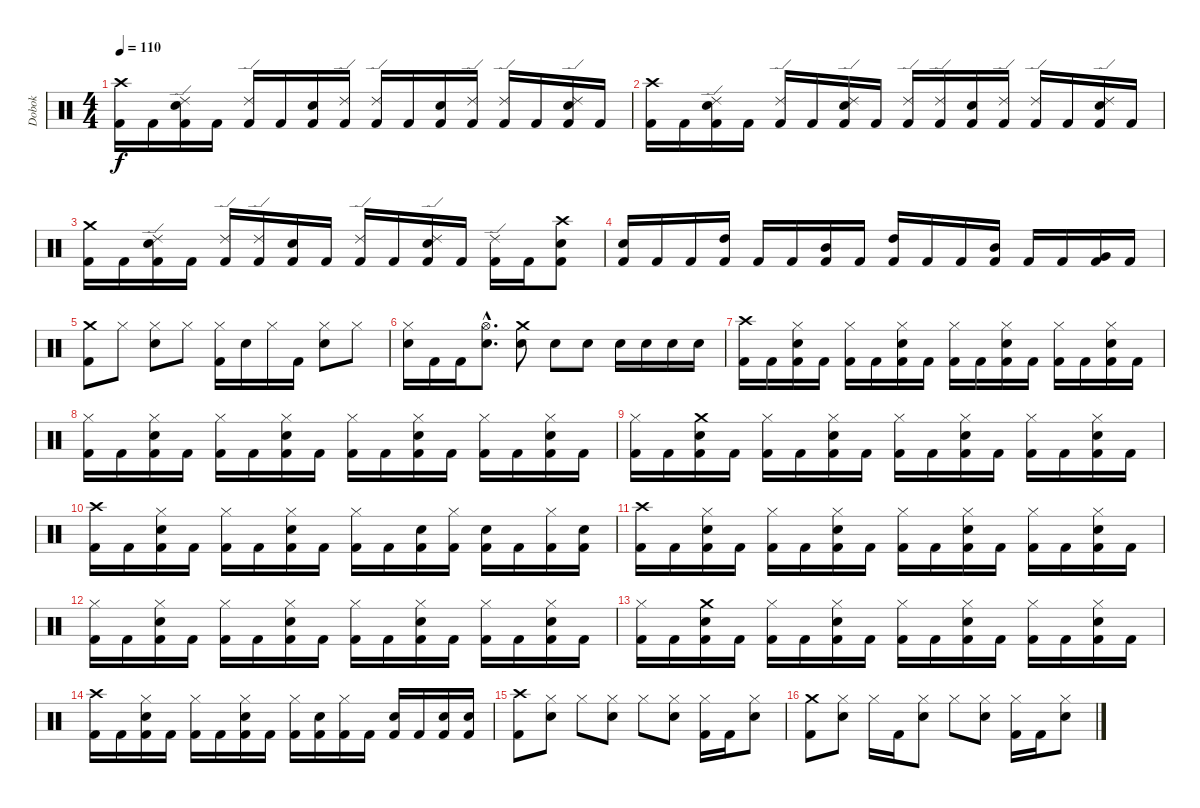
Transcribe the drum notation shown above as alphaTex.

\track ("Dobok" "Dobok") {instrument percussion}
\staff {score}
\articulation defaults
\ts (4 4)
\tempo 110
\clef neutral
\ks c
("Crash high (hit)" "Kick (hit) 2").16{dy f} "Kick (hit) 2".16 ("Ride (edge) 2" "Snare (hit) 2" "Kick (hit) 2").16 "Kick (hit) 2".16 ("Ride (edge) 2" "Kick (hit) 2").16 "Kick (hit) 2".16 ("Snare (hit) 2" "Kick (hit) 2").16 ("Ride (edge) 2" "Kick (hit) 2").16 ("Ride (edge) 2" "Kick (hit) 2").16 "Kick (hit) 2".16 ("Snare (hit) 2" "Kick (hit) 2").16 ("Ride (edge) 2" "Kick (hit) 2").16 ("Ride (edge) 2" "Kick (hit) 2").16 "Kick (hit) 2".16 ("Ride (edge) 2" "Snare (hit) 2" "Kick (hit) 2").16 "Kick (hit) 2".16 |
("Crash high (hit)" "Kick (hit) 2").16 "Kick (hit) 2".16 ("Ride (edge) 2" "Snare (hit) 2" "Kick (hit) 2").16 "Kick (hit) 2".16 ("Ride (edge) 2" "Kick (hit) 2").16 "Kick (hit) 2".16 ("Ride (edge) 2" "Snare (hit) 2" "Kick (hit) 2").16 "Kick (hit) 2".16 ("Ride (edge) 2" "Kick (hit) 2").16 ("Ride (edge) 2" "Kick (hit) 2").16 ("Snare (hit) 2" "Kick (hit) 2").16 ("Ride (edge) 2" "Kick (hit) 2").16 ("Ride (edge) 2" "Kick (hit) 2").16 "Kick (hit) 2".16 ("Ride (edge) 2" "Snare (hit) 2" "Kick (hit) 2").16 "Kick (hit) 2".16 |
("Crash medium (hit)" "Kick (hit) 2").16 "Kick (hit) 2".16 ("Ride (edge) 2" "Snare (hit) 2" "Kick (hit) 2").16 "Kick (hit) 2".16 ("Ride (edge) 2" "Kick (hit) 2").16 ("Ride (edge) 2" "Kick (hit) 2").16 ("Snare (hit) 2" "Kick (hit) 2").16 "Kick (hit) 2".16 ("Ride (edge) 2" "Kick (hit) 2").16 "Kick (hit) 2".16 ("Ride (edge) 2" "Snare (hit) 2" "Kick (hit) 2").16 "Kick (hit) 2".16 ("Ride (edge) 2" "Kick (hit) 2").16 "Kick (hit) 2".16 ("Crash high (hit)" "Snare (hit) 2" "Kick (hit) 2").8 |
("Snare (hit) 2" "Kick (hit) 2").16 "Kick (hit) 2".16 "Kick (hit) 2".16 ("High Tom (hit)" "Kick (hit) 2").16 "Kick (hit) 2".16 "Kick (hit) 2".16 ("Mid Tom (hit)" "Kick (hit) 2").16 "Kick (hit) 2".16 ("High Tom (hit)" "Kick (hit) 2").16 "Kick (hit) 2".16 "Kick (hit) 2".16 ("Mid Tom (hit)" "Kick (hit) 2").16 "Kick (hit) 2".16 "Kick (hit) 2".16 ("Very Low Tom (hit)" "Kick (hit) 2").16 "Kick (hit) 2".16 |
("Crash medium (hit)" "Kick (hit) 2").8 "Hi-Hat (closed)".8 ("Hi-Hat (closed)" "Snare (hit) 2").8 "Hi-Hat (closed)".8 ("Hi-Hat (closed)" "Kick (hit) 2").16 "Snare (hit) 2".16 "Hi-Hat (closed)".16 "Kick (hit) 2".16 ("Hi-Hat (closed)" "Snare (hit) 2").8 "Hi-Hat (closed)".8 |
("Hi-Hat (closed)" "Snare (hit) 2").16 "Kick (hit) 2".16 "Kick (hit) 2".16 ("Hi-Hat (open)"{hac} "Snare (hit) 2"{hac}).8{d} ("Crash medium (hit)" "Snare (hit) 2").8 "Snare (hit) 2".8 "Snare (hit) 2".8 "Snare (hit) 2".16 "Snare (hit) 2".16 "Snare (hit) 2".16 "Snare (hit) 2".16 |
("Crash high (hit)" "Kick (hit) 2").16 "Kick (hit) 2".16 ("Hi-Hat (closed)" "Snare (hit) 2" "Kick (hit) 2").16 "Kick (hit) 2".16 ("Hi-Hat (closed)" "Kick (hit) 2").16 "Kick (hit) 2".16 ("Hi-Hat (closed)" "Snare (hit) 2" "Kick (hit) 2").16 "Kick (hit) 2".16 ("Hi-Hat (closed)" "Kick (hit) 2").16 "Kick (hit) 2".16 ("Hi-Hat (closed)" "Snare (hit) 2" "Kick (hit) 2").16 "Kick (hit) 2".16 ("Hi-Hat (closed)" "Kick (hit) 2").16 "Kick (hit) 2".16 ("Hi-Hat (closed)" "Snare (hit) 2" "Kick (hit) 2").16 "Kick (hit) 2".16 |
("Hi-Hat (closed)" "Kick (hit) 2").16 "Kick (hit) 2".16 ("Hi-Hat (closed)" "Snare (hit) 2" "Kick (hit) 2").16 "Kick (hit) 2".16 ("Hi-Hat (closed)" "Kick (hit) 2").16 "Kick (hit) 2".16 ("Hi-Hat (closed)" "Snare (hit) 2" "Kick (hit) 2").16 "Kick (hit) 2".16 ("Hi-Hat (closed)" "Kick (hit) 2").16 "Kick (hit) 2".16 ("Hi-Hat (closed)" "Snare (hit) 2" "Kick (hit) 2").16 "Kick (hit) 2".16 ("Hi-Hat (closed)" "Kick (hit) 2").16 "Kick (hit) 2".16 ("Hi-Hat (closed)" "Snare (hit) 2" "Kick (hit) 2").16 "Kick (hit) 2".16 |
("Hi-Hat (closed)" "Kick (hit) 2").16 "Kick (hit) 2".16 ("Crash medium (hit)" "Snare (hit) 2" "Kick (hit) 2").16 "Kick (hit) 2".16 ("Hi-Hat (closed)" "Kick (hit) 2").16 "Kick (hit) 2".16 ("Hi-Hat (closed)" "Snare (hit) 2" "Kick (hit) 2").16 "Kick (hit) 2".16 ("Hi-Hat (closed)" "Kick (hit) 2").16 "Kick (hit) 2".16 ("Hi-Hat (closed)" "Snare (hit) 2" "Kick (hit) 2").16 "Kick (hit) 2".16 ("Hi-Hat (closed)" "Kick (hit) 2").16 "Kick (hit) 2".16 ("Hi-Hat (closed)" "Snare (hit) 2" "Kick (hit) 2").16 "Kick (hit) 2".16 |
("Crash high (hit)" "Kick (hit) 2").16 "Kick (hit) 2".16 ("Hi-Hat (closed)" "Snare (hit) 2" "Kick (hit) 2").16 "Kick (hit) 2".16 ("Hi-Hat (closed)" "Kick (hit) 2").16 "Kick (hit) 2".16 ("Hi-Hat (closed)" "Snare (hit) 2" "Kick (hit) 2").16 "Kick (hit) 2".16 ("Hi-Hat (closed)" "Kick (hit) 2").16 "Kick (hit) 2".16 ("Snare (hit) 2" "Kick (hit) 2").16 ("Hi-Hat (closed)" "Kick (hit) 2").16 ("Snare (hit) 2" "Kick (hit) 2").16 "Kick (hit) 2".16 ("Hi-Hat (closed)" "Kick (hit) 2").16 ("Snare (hit) 2" "Kick (hit) 2").16 |
("Crash high (hit)" "Kick (hit) 2").16 "Kick (hit) 2".16 ("Hi-Hat (closed)" "Snare (hit) 2" "Kick (hit) 2").16 "Kick (hit) 2".16 ("Hi-Hat (closed)" "Kick (hit) 2").16 "Kick (hit) 2".16 ("Hi-Hat (closed)" "Snare (hit) 2" "Kick (hit) 2").16 "Kick (hit) 2".16 ("Hi-Hat (closed)" "Kick (hit) 2").16 "Kick (hit) 2".16 ("Hi-Hat (closed)" "Snare (hit) 2" "Kick (hit) 2").16 "Kick (hit) 2".16 ("Hi-Hat (closed)" "Kick (hit) 2").16 "Kick (hit) 2".16 ("Hi-Hat (closed)" "Snare (hit) 2" "Kick (hit) 2").16 "Kick (hit) 2".16 |
("Hi-Hat (closed)" "Kick (hit) 2").16 "Kick (hit) 2".16 ("Hi-Hat (closed)" "Snare (hit) 2" "Kick (hit) 2").16 "Kick (hit) 2".16 ("Hi-Hat (closed)" "Kick (hit) 2").16 "Kick (hit) 2".16 ("Hi-Hat (closed)" "Snare (hit) 2" "Kick (hit) 2").16 "Kick (hit) 2".16 ("Hi-Hat (closed)" "Kick (hit) 2").16 "Kick (hit) 2".16 ("Hi-Hat (closed)" "Snare (hit) 2" "Kick (hit) 2").16 "Kick (hit) 2".16 ("Hi-Hat (closed)" "Kick (hit) 2").16 "Kick (hit) 2".16 ("Hi-Hat (closed)" "Snare (hit) 2" "Kick (hit) 2").16 "Kick (hit) 2".16 |
("Hi-Hat (closed)" "Kick (hit) 2").16 "Kick (hit) 2".16 ("Crash medium (hit)" "Snare (hit) 2" "Kick (hit) 2").16 "Kick (hit) 2".16 ("Hi-Hat (closed)" "Kick (hit) 2").16 "Kick (hit) 2".16 ("Hi-Hat (closed)" "Snare (hit) 2" "Kick (hit) 2").16 "Kick (hit) 2".16 ("Hi-Hat (closed)" "Kick (hit) 2").16 "Kick (hit) 2".16 ("Hi-Hat (closed)" "Snare (hit) 2" "Kick (hit) 2").16 "Kick (hit) 2".16 ("Hi-Hat (closed)" "Kick (hit) 2").16 "Kick (hit) 2".16 ("Hi-Hat (closed)" "Snare (hit) 2" "Kick (hit) 2").16 "Kick (hit) 2".16 |
("Crash high (hit)" "Kick (hit) 2").16 "Kick (hit) 2".16 ("Hi-Hat (closed)" "Snare (hit) 2" "Kick (hit) 2").16 "Kick (hit) 2".16 ("Hi-Hat (closed)" "Kick (hit) 2").16 "Kick (hit) 2".16 ("Hi-Hat (closed)" "Snare (hit) 2" "Kick (hit) 2").16 "Kick (hit) 2".16 ("Hi-Hat (closed)" "Kick (hit) 2").16 ("Snare (hit) 2" "Kick (hit) 2").16 ("Hi-Hat (closed)" "Kick (hit) 2").16 "Kick (hit) 2".16 ("Snare (hit) 2" "Kick (hit) 2").16 "Kick (hit) 2".16 ("Snare (hit) 2" "Kick (hit) 2").16 ("Snare (hit) 2" "Kick (hit) 2").16 |
("Crash high (hit)" "Kick (hit) 2").8 ("Hi-Hat (closed)" "Snare (hit) 2").8 "Hi-Hat (closed)".8 ("Hi-Hat (closed)" "Snare (hit) 2").8 "Hi-Hat (closed)".8 ("Hi-Hat (closed)" "Snare (hit) 2").8 ("Hi-Hat (closed)" "Kick (hit) 2").16 "Kick (hit) 2".16 ("Hi-Hat (closed)" "Snare (hit) 2").8 |
("Crash medium (hit)" "Kick (hit) 2").8 ("Hi-Hat (closed)" "Snare (hit) 2").8 "Hi-Hat (closed)".16 "Kick (hit) 2".16 ("Hi-Hat (closed)" "Snare (hit) 2").8 "Hi-Hat (closed)".8 ("Hi-Hat (closed)" "Snare (hit) 2").8 ("Hi-Hat (closed)" "Kick (hit) 2").16 "Kick (hit) 2".16 ("Hi-Hat (closed)" "Snare (hit) 2").8
